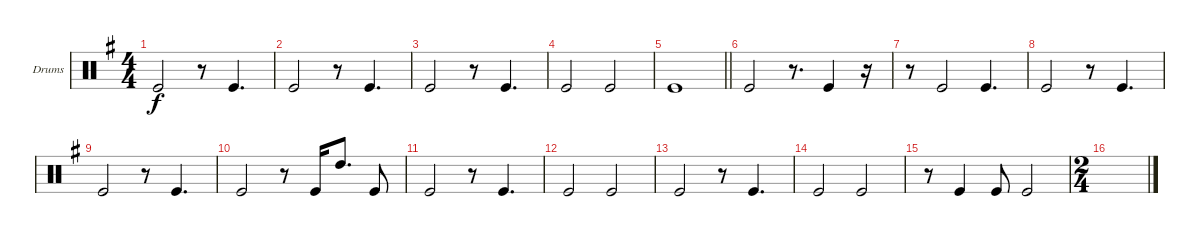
\defaultSystemsLayout 4
\bracketExtendMode groupsimilarinstruments
\firstSystemTrackNameOrientation horizontal
\otherSystemsTrackNameOrientation horizontal
\track ("Drums" "Drums") {instrument percussion}
\staff {score}
\articulation defaults
\ts (4 4)
\scale
0.508571
\tempo (85 hide)
\accidentals auto
\clef neutral
\ottava regular
\simile none
\ks eminor "Kick (hit)".2{dy f}
r.8 "Kick (hit)".4{d} |
\scale
0.491529 "Kick (hit)".2 r.8 "Kick (hit)".4{d} |
\scale
0.454777 "Kick (hit)".2 r.8 "Kick (hit)".4{d} |
\scale
0.545533 "Kick (hit)".2 "Kick (hit)".2 |
\scale
0.460834
\barLineRight lightlight "Kick (hit)".1
|
\scale
0.539195 "Kick (hit)".2 r.8{d} "Kick (hit)".4 r.16 |
\scale
0.420838 r.8 "Kick (hit)".2 "Kick (hit)".4{d} |
\scale
0.579821 "Kick (hit)".2 r.8 "Kick (hit)".4{d} |
\scale
0.504286 "Kick (hit)".2 r.8 "Kick (hit)".4{d} |
\scale
0.495726 "Kick (hit)".2 r.8 "Kick (hit)".16 "High Tom (hit)".8{d} "Kick (hit)".8 |
\scale
0.475783 "Kick (hit)".2 r.8 "Kick (hit)".4{d} |
\scale
0.490351 "Kick (hit)".2 "Kick (hit)".2 |
\scale
0.453641 "Kick (hit)".2 r.8 "Kick (hit)".4{d} |
\scale
0.546783 "Kick (hit)".2 "Kick (hit)".2 |
\scale
0.553495 r.8 "Kick (hit)".4 "Kick (hit)".8 "Kick (hit)".2 |
\ts (2 4)
\scale
0.446999
